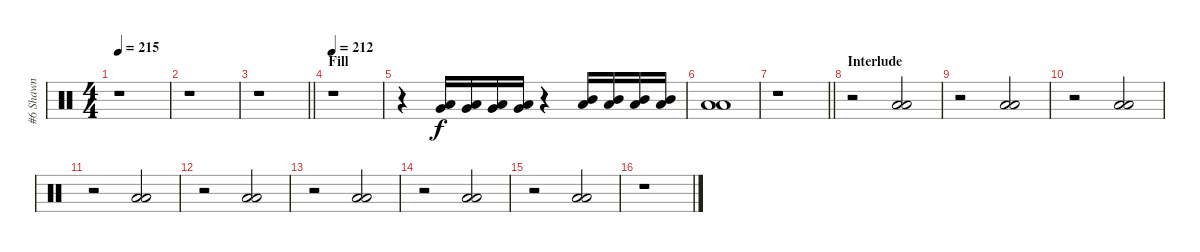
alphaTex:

\track ("#6 Shawn" "#6 Shawn") {instrument percussion}
\staff {score}
\articulation defaults
\ts (4 4)
\tempo 215
\clef neutral
\ks c
r.1{dy fff} |
r.1 |
\barLineRight lightlight
r.1 |
\section ("" "Fill")
\tempo 212
r.1 |
r.4{balance 0} ("Very Low Tom (hit)" "Low Floor Tom (hit)").16{dy f} ("Very Low Tom (hit)" "Low Floor Tom (hit)").16 ("Very Low Tom (hit)" "Low Floor Tom (hit)").16 ("Very Low Tom (hit)" "Low Floor Tom (hit)").16 r.4 ("Mid Tom (hit)" "Low Tom (hit)").16{balance 8} ("Mid Tom (hit)" "Low Tom (hit)").16 ("Mid Tom (hit)" "Low Tom (hit)").16 ("Mid Tom (hit)" "Low Tom (hit)").16 |
("Low Floor Tom (hit)" "Low Floor Tom (hit)").1 |
\barLineRight lightlight
r.1 |
\section ("" "Interlude")
r.2 ("Low Floor Tom (hit)" "Low Floor Tom (hit)").2 |
r.2 ("Low Floor Tom (hit)" "Low Floor Tom (hit)").2 |
r.2 ("Low Floor Tom (hit)" "Low Floor Tom (hit)").2 |
r.2 ("Low Floor Tom (hit)" "Low Floor Tom (hit)").2 |
r.2 ("Low Floor Tom (hit)" "Low Floor Tom (hit)").2 |
r.2 ("Low Floor Tom (hit)" "Low Floor Tom (hit)").2 |
r.2 ("Low Floor Tom (hit)" "Low Floor Tom (hit)").2 |
r.2 ("Low Floor Tom (hit)" "Low Floor Tom (hit)").2 |
r.1
